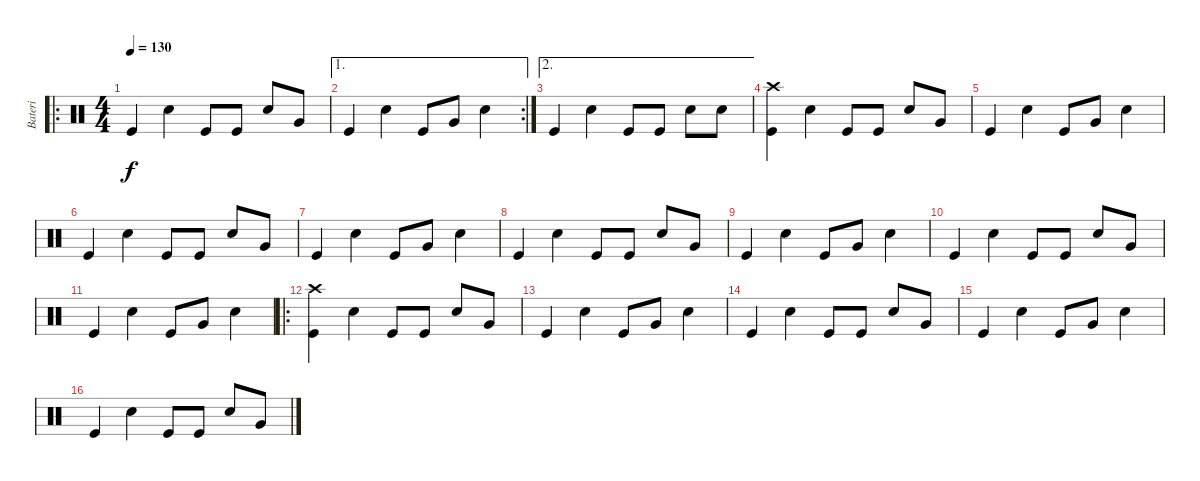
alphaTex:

\track ("Bateri" "Bateri") {instrument percussion}
\staff {score}
\articulation defaults
\ro
\ts (4 4)
\tempo 130
\clef neutral
\ks c "Kick (hit)".4{dy f} "Electric Snare (hit)".4 "Kick (hit)".8 "Kick (hit)".8 "Electric Snare (hit)".8 "Very Low Tom (hit)".8
|
\ae 1
\rc 2 "Kick (hit)".4 "Electric Snare (hit)".4 "Kick (hit)".8 "Very Low Tom (hit)".8 "Electric Snare (hit)".4
|
\ae 2 "Kick (hit)".4 "Electric Snare (hit)".4 "Kick (hit)".8 "Kick (hit)".8 "Electric Snare (hit)".8 "Electric Snare (hit)".8
|
("Kick (hit)" "Crash high (hit)").4 "Electric Snare (hit)".4 "Kick (hit)".8 "Kick (hit)".8 "Electric Snare (hit)".8 "Very Low Tom (hit)".8 |
"Kick (hit)".4 "Electric Snare (hit)".4 "Kick (hit)".8 "Very Low Tom (hit)".8 "Electric Snare (hit)".4 |
"Kick (hit)".4 "Electric Snare (hit)".4 "Kick (hit)".8 "Kick (hit)".8 "Electric Snare (hit)".8 "Very Low Tom (hit)".8 |
"Kick (hit)".4 "Electric Snare (hit)".4 "Kick (hit)".8 "Very Low Tom (hit)".8 "Electric Snare (hit)".4 |
"Kick (hit)".4 "Electric Snare (hit)".4 "Kick (hit)".8 "Kick (hit)".8 "Electric Snare (hit)".8 "Very Low Tom (hit)".8 |
"Kick (hit)".4 "Electric Snare (hit)".4 "Kick (hit)".8 "Very Low Tom (hit)".8 "Electric Snare (hit)".4 |
"Kick (hit)".4 "Electric Snare (hit)".4 "Kick (hit)".8 "Kick (hit)".8 "Electric Snare (hit)".8 "Very Low Tom (hit)".8 |
"Kick (hit)".4 "Electric Snare (hit)".4 "Kick (hit)".8 "Very Low Tom (hit)".8 "Electric Snare (hit)".4 |
\ro
("Kick (hit)" "Crash high (hit)").4 "Electric Snare (hit)".4 "Kick (hit)".8 "Kick (hit)".8 "Electric Snare (hit)".8 "Very Low Tom (hit)".8 |
"Kick (hit)".4 "Electric Snare (hit)".4 "Kick (hit)".8 "Very Low Tom (hit)".8 "Electric Snare (hit)".4 |
"Kick (hit)".4 "Electric Snare (hit)".4 "Kick (hit)".8 "Kick (hit)".8 "Electric Snare (hit)".8 "Very Low Tom (hit)".8 |
"Kick (hit)".4 "Electric Snare (hit)".4 "Kick (hit)".8 "Very Low Tom (hit)".8 "Electric Snare (hit)".4 |
"Kick (hit)".4 "Electric Snare (hit)".4 "Kick (hit)".8 "Kick (hit)".8 "Electric Snare (hit)".8 "Very Low Tom (hit)".8
